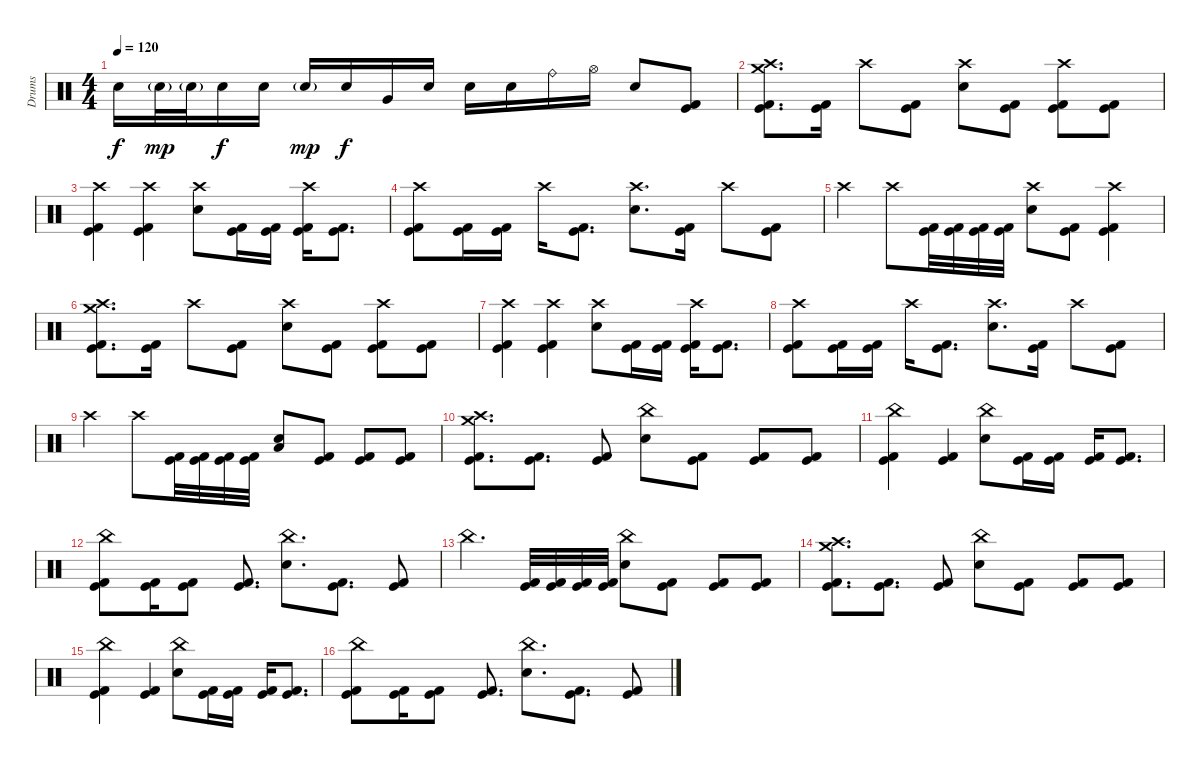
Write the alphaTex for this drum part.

\track ("Drums" "Drums") {instrument percussion}
\staff {score}
\articulation defaults
\ts (4 4)
\tempo 120
\clef neutral
\ks c "Electric Snare (hit)".16{dy f} "Electric Snare (hit)"{g}.32{dy mp} "Electric Snare (hit)"{g}.32 "Electric Snare (hit)".16{dy f} "Electric Snare (hit)".16 "Electric Snare (hit)"{g}.16{dy mp} "Electric Snare (hit)".16{dy f} "Very Low Tom (hit)".16 "Electric Snare (hit)".16 "Electric Snare (hit)".16 "Electric Snare (hit)".16 "Ride (bell)".16 "Hi-Hat (open)".16 "Electric Snare (hit)".8
("Kick (hit)" "Kick (hit) 2").8 |
("Crash medium (hit)" "Crash high (hit)" "Kick (hit)" "Kick (hit) 2").8{d} ("Kick (hit)" "Kick (hit) 2").16 "Crash high (hit)".8 ("Kick (hit)" "Kick (hit) 2").8 ("Crash high (hit)" "Electric Snare (hit)").8 ("Kick (hit)" "Kick (hit) 2").8 ("Crash high (hit)" "Kick (hit)" "Kick (hit) 2").8 ("Kick (hit)" "Kick (hit) 2").8 |
("Crash high (hit)" "Kick (hit)" "Kick (hit) 2").4 ("Crash high (hit)" "Kick (hit)" "Kick (hit) 2").4 ("Crash high (hit)" "Electric Snare (hit)").8 ("Kick (hit)" "Kick (hit) 2").16 ("Kick (hit)" "Kick (hit) 2").16 ("Crash high (hit)" "Kick (hit)" "Kick (hit) 2").16 ("Kick (hit)" "Kick (hit) 2").8{d} |
("Crash high (hit)" "Kick (hit)" "Kick (hit) 2").8 ("Kick (hit)" "Kick (hit) 2").16 ("Kick (hit)" "Kick (hit) 2").16 "Crash high (hit)".16 ("Kick (hit)" "Kick (hit) 2").8{d} ("Crash high (hit)" "Electric Snare (hit)").8{d} ("Kick (hit)" "Kick (hit) 2").16 "Crash high (hit)".8 ("Kick (hit)" "Kick (hit) 2").8 |
"Crash high (hit)".4 "Crash high (hit)".8 ("Kick (hit)" "Kick (hit) 2").32 ("Kick (hit)" "Kick (hit) 2").32 ("Kick (hit)" "Kick (hit) 2").32 ("Kick (hit)" "Kick (hit) 2").32 ("Crash high (hit)" "Electric Snare (hit)").8 ("Kick (hit)" "Kick (hit) 2").8 ("Crash high (hit)" "Kick (hit)" "Kick (hit) 2").4 |
("Crash medium (hit)" "Crash high (hit)" "Kick (hit)" "Kick (hit) 2").8{d} ("Kick (hit)" "Kick (hit) 2").16 "Crash high (hit)".8 ("Kick (hit)" "Kick (hit) 2").8 ("Crash high (hit)" "Electric Snare (hit)").8 ("Kick (hit)" "Kick (hit) 2").8 ("Crash high (hit)" "Kick (hit)" "Kick (hit) 2").8 ("Kick (hit)" "Kick (hit) 2").8 |
("Crash high (hit)" "Kick (hit)" "Kick (hit) 2").4 ("Crash high (hit)" "Kick (hit)" "Kick (hit) 2").4 ("Crash high (hit)" "Electric Snare (hit)").8 ("Kick (hit)" "Kick (hit) 2").16 ("Kick (hit)" "Kick (hit) 2").16 ("Crash high (hit)" "Kick (hit)" "Kick (hit) 2").16 ("Kick (hit)" "Kick (hit) 2").8{d} |
("Crash high (hit)" "Kick (hit)" "Kick (hit) 2").8 ("Kick (hit)" "Kick (hit) 2").16 ("Kick (hit)" "Kick (hit) 2").16 "Crash high (hit)".16 ("Kick (hit)" "Kick (hit) 2").8{d} ("Crash high (hit)" "Electric Snare (hit)").8{d} ("Kick (hit)" "Kick (hit) 2").16 "Crash high (hit)".8 ("Kick (hit)" "Kick (hit) 2").8 |
"Crash high (hit)".4 "Crash high (hit)".8 ("Kick (hit)" "Kick (hit) 2").32 ("Kick (hit)" "Kick (hit) 2").32 ("Kick (hit)" "Kick (hit) 2").32 ("Kick (hit)" "Kick (hit) 2").32 ("Electric Snare (hit)" "Low Floor Tom (hit)").8 ("Kick (hit)" "Kick (hit) 2").8 ("Kick (hit)" "Kick (hit) 2").8 ("Kick (hit)" "Kick (hit) 2").8 |
("Crash medium (hit)" "Crash high (hit)" "Kick (hit)" "Kick (hit) 2").8{d} ("Kick (hit)" "Kick (hit) 2").8{d} ("Kick (hit)" "Kick (hit) 2").8 ("China (hit)" "Electric Snare (hit)").8 ("Kick (hit)" "Kick (hit) 2").8 ("Kick (hit)" "Kick (hit) 2").8 ("Kick (hit)" "Kick (hit) 2").8 |
("China (hit)" "Kick (hit)" "Kick (hit) 2").4 ("Kick (hit)" "Kick (hit) 2").4 ("China (hit)" "Electric Snare (hit)").8 ("Kick (hit)" "Kick (hit) 2").16 ("Kick (hit)" "Kick (hit) 2").16 ("Kick (hit)" "Kick (hit) 2").16 ("Kick (hit)" "Kick (hit) 2").8{d} |
("China (hit)" "Kick (hit)" "Kick (hit) 2").8 ("Kick (hit)" "Kick (hit) 2").16 ("Kick (hit)" "Kick (hit) 2").8 ("Kick (hit)" "Kick (hit) 2").8{d} ("China (hit)" "Electric Snare (hit)").8{d} ("Kick (hit)" "Kick (hit) 2").8{d} ("Kick (hit)" "Kick (hit) 2").8 |
"China (hit)".4{d} ("Kick (hit)" "Kick (hit) 2").32 ("Kick (hit)" "Kick (hit) 2").32 ("Kick (hit)" "Kick (hit) 2").32 ("Kick (hit)" "Kick (hit) 2").32 ("China (hit)" "Electric Snare (hit)").8 ("Kick (hit)" "Kick (hit) 2").8 ("Kick (hit)" "Kick (hit) 2").8 ("Kick (hit)" "Kick (hit) 2").8 |
("Crash medium (hit)" "Crash high (hit)" "Kick (hit)" "Kick (hit) 2").8{d} ("Kick (hit)" "Kick (hit) 2").8{d} ("Kick (hit)" "Kick (hit) 2").8 ("China (hit)" "Electric Snare (hit)").8 ("Kick (hit)" "Kick (hit) 2").8 ("Kick (hit)" "Kick (hit) 2").8 ("Kick (hit)" "Kick (hit) 2").8 |
("China (hit)" "Kick (hit)" "Kick (hit) 2").4 ("Kick (hit)" "Kick (hit) 2").4 ("China (hit)" "Electric Snare (hit)").8 ("Kick (hit)" "Kick (hit) 2").16 ("Kick (hit)" "Kick (hit) 2").16 ("Kick (hit)" "Kick (hit) 2").16 ("Kick (hit)" "Kick (hit) 2").8{d} |
("China (hit)" "Kick (hit)" "Kick (hit) 2").8 ("Kick (hit)" "Kick (hit) 2").16 ("Kick (hit)" "Kick (hit) 2").8 ("Kick (hit)" "Kick (hit) 2").8{d} ("China (hit)" "Electric Snare (hit)").8{d} ("Kick (hit)" "Kick (hit) 2").8{d} ("Kick (hit)" "Kick (hit) 2").8
